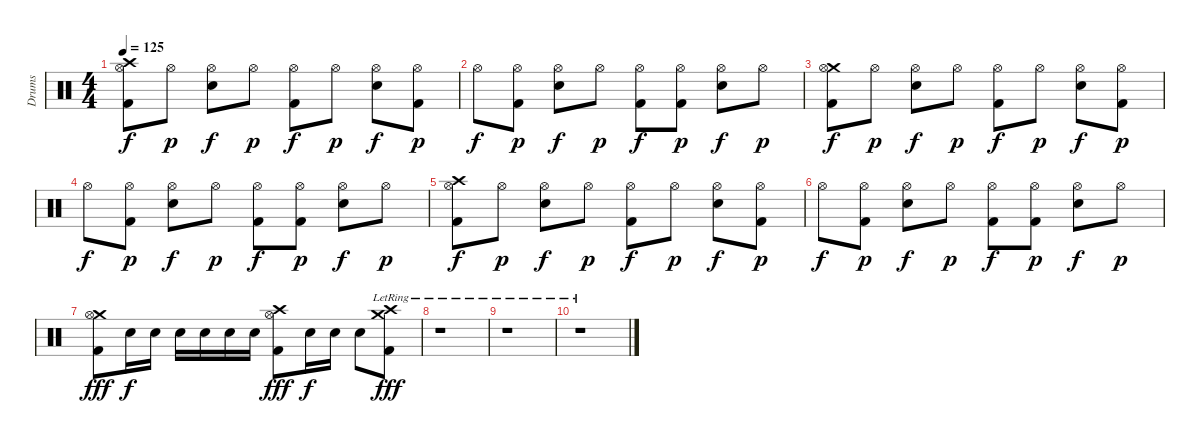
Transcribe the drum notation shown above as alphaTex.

\track ("Drums" "Drums") {instrument percussion}
\staff {score}
\articulation defaults
\ts (4 4)
\tempo 125
\clef neutral
\ks c
("Crash high (hit)" "Hi-Hat (open)" "Kick (hit) 2").8{dy f} "Hi-Hat (open)".8{dy p} ("Hi-Hat (open)" "Electric Snare (hit)").8{dy f} "Hi-Hat (open)".8{dy p} ("Hi-Hat (open)" "Kick (hit) 2").8{dy f} "Hi-Hat (open)".8{dy p} ("Hi-Hat (open)" "Electric Snare (hit)").8{dy f} ("Hi-Hat (open)" "Kick (hit) 2").8{dy p} |
"Hi-Hat (open)".8{dy f} ("Hi-Hat (open)" "Kick (hit) 2").8{dy p} ("Hi-Hat (open)" "Electric Snare (hit)").8{dy f} "Hi-Hat (open)".8{dy p} ("Hi-Hat (open)" "Kick (hit) 2").8{dy f} ("Hi-Hat (open)" "Kick (hit) 2").8{dy p} ("Hi-Hat (open)" "Electric Snare (hit)").8{dy f} "Hi-Hat (open)".8{dy p} |
("Crash medium (hit)" "Hi-Hat (open)" "Kick (hit) 2").8{dy f} "Hi-Hat (open)".8{dy p} ("Hi-Hat (open)" "Electric Snare (hit)").8{dy f} "Hi-Hat (open)".8{dy p} ("Hi-Hat (open)" "Kick (hit) 2").8{dy f} "Hi-Hat (open)".8{dy p} ("Hi-Hat (open)" "Electric Snare (hit)").8{dy f} ("Hi-Hat (open)" "Kick (hit) 2").8{dy p} |
"Hi-Hat (open)".8{dy f} ("Hi-Hat (open)" "Kick (hit) 2").8{dy p} ("Hi-Hat (open)" "Electric Snare (hit)").8{dy f} "Hi-Hat (open)".8{dy p} ("Hi-Hat (open)" "Kick (hit) 2").8{dy f} ("Hi-Hat (open)" "Kick (hit) 2").8{dy p} ("Hi-Hat (open)" "Electric Snare (hit)").8{dy f} "Hi-Hat (open)".8{dy p} |
("Crash high (hit)" "Hi-Hat (open)" "Kick (hit) 2").8{dy f} "Hi-Hat (open)".8{dy p} ("Hi-Hat (open)" "Electric Snare (hit)").8{dy f} "Hi-Hat (open)".8{dy p} ("Hi-Hat (open)" "Kick (hit) 2").8{dy f} "Hi-Hat (open)".8{dy p} ("Hi-Hat (open)" "Electric Snare (hit)").8{dy f} ("Hi-Hat (open)" "Kick (hit) 2").8{dy p} |
"Hi-Hat (open)".8{dy f} ("Hi-Hat (open)" "Kick (hit) 2").8{dy p} ("Hi-Hat (open)" "Electric Snare (hit)").8{dy f} "Hi-Hat (open)".8{dy p} ("Hi-Hat (open)" "Kick (hit) 2").8{dy f} ("Hi-Hat (open)" "Kick (hit) 2").8{dy p} ("Hi-Hat (open)" "Electric Snare (hit)").8{dy f} "Hi-Hat (open)".8{dy p} |
("Crash medium (hit)" "Hi-Hat (open)" "Kick (hit) 2").8{dy fff} "Electric Snare (hit)".16{dy f} "Electric Snare (hit)".16 "Electric Snare (hit)".16 "Electric Snare (hit)".16 "Electric Snare (hit)".16 "Electric Snare (hit)".16 ("Crash high (hit)" "Hi-Hat (open)" "Kick (hit) 2").8{dy fff} "Electric Snare (hit)".16{dy f} "Electric Snare (hit)".16 "Electric Snare (hit)".8 ("Crash high (hit)"{lr} "Crash medium (hit)"{lr} "Kick (hit) 2"{lr}).8{dy fff} |
r.1 |
r.1 |
r.1
